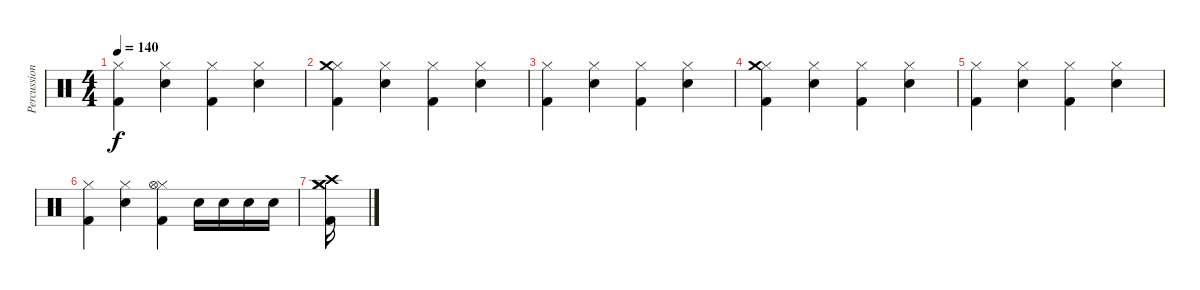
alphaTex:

\track ("Percussion" "Percussion") {instrument percussion}
\staff {score}
\articulation defaults
\ts (4 4)
\tempo 140
\clef neutral
\ks c
("Hi-Hat (closed)" "Kick (hit) 2").4{dy f} ("Hi-Hat (closed)" "Electric Snare (hit)").4 ("Hi-Hat (closed)" "Kick (hit) 2").4 ("Hi-Hat (closed)" "Electric Snare (hit)").4 |
("Hi-Hat (closed)" "Kick (hit) 2" "Crash medium (hit)").4 ("Hi-Hat (closed)" "Electric Snare (hit)").4 ("Hi-Hat (closed)" "Kick (hit) 2").4 ("Hi-Hat (closed)" "Electric Snare (hit)").4 |
("Hi-Hat (closed)" "Kick (hit) 2").4 ("Hi-Hat (closed)" "Electric Snare (hit)").4 ("Hi-Hat (closed)" "Kick (hit) 2").4 ("Hi-Hat (closed)" "Electric Snare (hit)").4 |
("Hi-Hat (closed)" "Kick (hit) 2" "Crash medium (hit)").4 ("Hi-Hat (closed)" "Electric Snare (hit)").4 ("Hi-Hat (closed)" "Kick (hit) 2").4 ("Hi-Hat (closed)" "Electric Snare (hit)").4 |
("Hi-Hat (closed)" "Kick (hit) 2").4 ("Hi-Hat (closed)" "Electric Snare (hit)").4 ("Hi-Hat (closed)" "Kick (hit) 2").4 ("Hi-Hat (closed)" "Electric Snare (hit)").4 |
("Hi-Hat (closed)" "Kick (hit) 2").4 ("Hi-Hat (closed)" "Electric Snare (hit)").4 ("Hi-Hat (closed)" "Kick (hit) 2" "Hi-Hat (open)").4 "Electric Snare (hit)".16 "Electric Snare (hit)".16 "Electric Snare (hit)".16 "Electric Snare (hit)".16 |
("Kick (hit) 2" "Crash high (hit)" "Crash medium (hit)" "Crash medium (hit)").16
